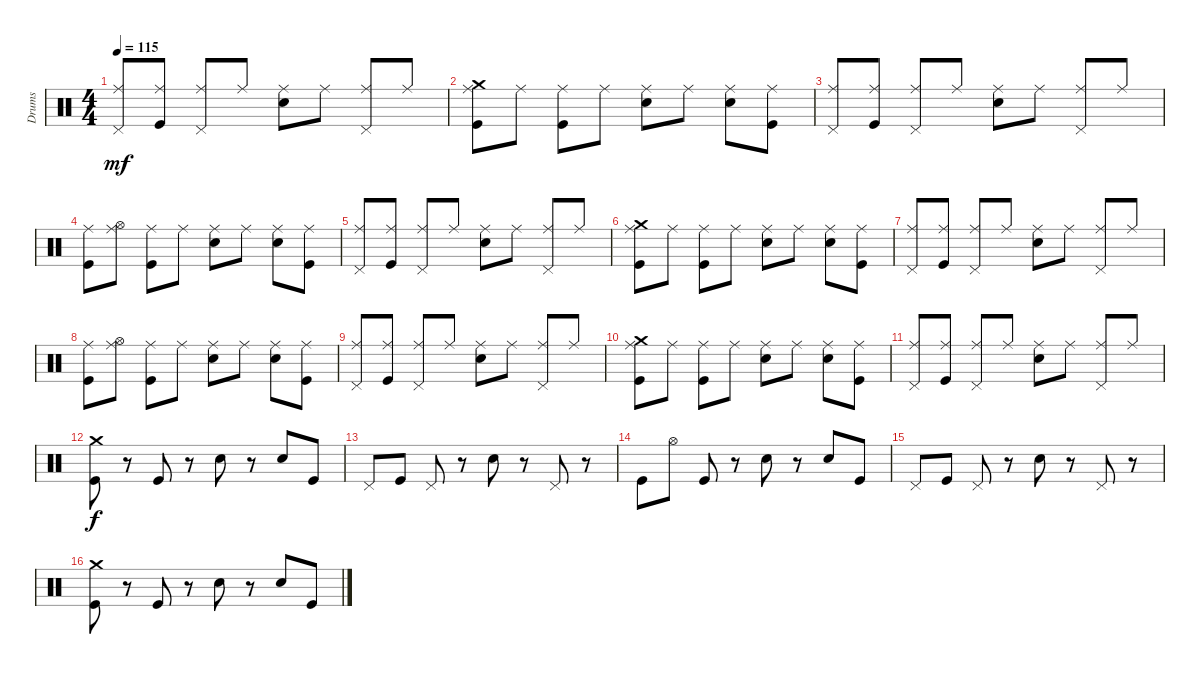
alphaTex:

\track ("Drums" "Drums") {instrument percussion}
\staff {score}
\articulation defaults
\ts (4 4)
\tempo 115
\clef neutral
\ks c
("Ride (middle)" "Pedal Hi-Hat (hit)").8{dy mf} ("Ride (middle)" "Kick (hit)").8 ("Ride (middle)" "Pedal Hi-Hat (hit)").8 "Ride (middle)".8 ("Ride (middle)" "Snare (hit) 2").8 "Ride (middle)".8 ("Ride (middle)" "Pedal Hi-Hat (hit)").8 "Ride (middle)".8 |
("Ride (middle)" "Crash medium (hit)" "Kick (hit)").8 "Ride (middle)".8 ("Ride (middle)" "Kick (hit)").8 "Ride (middle)".8 ("Ride (middle)" "Snare (hit) 2").8 "Ride (middle)".8 ("Ride (middle)" "Snare (hit) 2").8 ("Ride (middle)" "Kick (hit)").8 |
("Ride (middle)" "Pedal Hi-Hat (hit)").8 ("Ride (middle)" "Kick (hit)").8 ("Ride (middle)" "Pedal Hi-Hat (hit)").8 "Ride (middle)".8 ("Ride (middle)" "Snare (hit) 2").8 "Ride (middle)".8 ("Ride (middle)" "Pedal Hi-Hat (hit)").8 "Ride (middle)".8 |
("Ride (middle)" "Kick (hit)").8 ("Ride (middle)" "Hi-Hat (open)").8 ("Ride (middle)" "Kick (hit)").8 "Ride (middle)".8 ("Ride (middle)" "Snare (hit) 2").8 "Ride (middle)".8 ("Ride (middle)" "Snare (hit) 2").8 ("Ride (middle)" "Kick (hit)").8 |
("Ride (middle)" "Pedal Hi-Hat (hit)").8 ("Ride (middle)" "Kick (hit)").8 ("Ride (middle)" "Pedal Hi-Hat (hit)").8 "Ride (middle)".8 ("Ride (middle)" "Snare (hit) 2").8 "Ride (middle)".8 ("Ride (middle)" "Pedal Hi-Hat (hit)").8 "Ride (middle)".8 |
("Ride (middle)" "Crash medium (hit)" "Kick (hit)").8 "Ride (middle)".8 ("Ride (middle)" "Kick (hit)").8 "Ride (middle)".8 ("Ride (middle)" "Snare (hit) 2").8 "Ride (middle)".8 ("Ride (middle)" "Snare (hit) 2").8 ("Ride (middle)" "Kick (hit)").8 |
("Ride (middle)" "Pedal Hi-Hat (hit)").8 ("Ride (middle)" "Kick (hit)").8 ("Ride (middle)" "Pedal Hi-Hat (hit)").8 "Ride (middle)".8 ("Ride (middle)" "Snare (hit) 2").8 "Ride (middle)".8 ("Ride (middle)" "Pedal Hi-Hat (hit)").8 "Ride (middle)".8 |
("Ride (middle)" "Kick (hit)").8 ("Ride (middle)" "Hi-Hat (open)").8 ("Ride (middle)" "Kick (hit)").8 "Ride (middle)".8 ("Ride (middle)" "Snare (hit) 2").8 "Ride (middle)".8 ("Ride (middle)" "Snare (hit) 2").8 ("Ride (middle)" "Kick (hit)").8 |
("Ride (middle)" "Pedal Hi-Hat (hit)").8 ("Ride (middle)" "Kick (hit)").8 ("Ride (middle)" "Pedal Hi-Hat (hit)").8 "Ride (middle)".8 ("Ride (middle)" "Snare (hit) 2").8 "Ride (middle)".8 ("Ride (middle)" "Pedal Hi-Hat (hit)").8 "Ride (middle)".8 |
("Ride (middle)" "Crash medium (hit)" "Kick (hit)").8 "Ride (middle)".8 ("Ride (middle)" "Kick (hit)").8 "Ride (middle)".8 ("Ride (middle)" "Snare (hit) 2").8 "Ride (middle)".8 ("Ride (middle)" "Snare (hit) 2").8 ("Ride (middle)" "Kick (hit)").8 |
("Ride (middle)" "Pedal Hi-Hat (hit)").8 ("Ride (middle)" "Kick (hit)").8 ("Ride (middle)" "Pedal Hi-Hat (hit)").8 "Ride (middle)".8 ("Ride (middle)" "Snare (hit) 2").8 "Ride (middle)".8 ("Ride (middle)" "Pedal Hi-Hat (hit)").8 "Ride (middle)".8 |
("Crash medium (hit)" "Kick (hit)").8{dy f} r.8 "Kick (hit)".8 r.8 "Snare (hit) 2".8 r.8 "Snare (hit) 2".8 "Kick (hit)".8 |
"Pedal Hi-Hat (hit)".8 "Kick (hit)".8 "Pedal Hi-Hat (hit)".8 r.8 "Snare (hit) 2".8 r.8 "Pedal Hi-Hat (hit)".8 r.8 |
"Kick (hit)".8 "Hi-Hat (open)".8 "Kick (hit)".8 r.8 "Snare (hit) 2".8 r.8 "Snare (hit) 2".8 "Kick (hit)".8 |
"Pedal Hi-Hat (hit)".8 "Kick (hit)".8 "Pedal Hi-Hat (hit)".8 r.8 "Snare (hit) 2".8 r.8 "Pedal Hi-Hat (hit)".8 r.8 |
("Crash medium (hit)" "Kick (hit)").8 r.8 "Kick (hit)".8 r.8 "Snare (hit) 2".8 r.8 "Snare (hit) 2".8 "Kick (hit)".8
